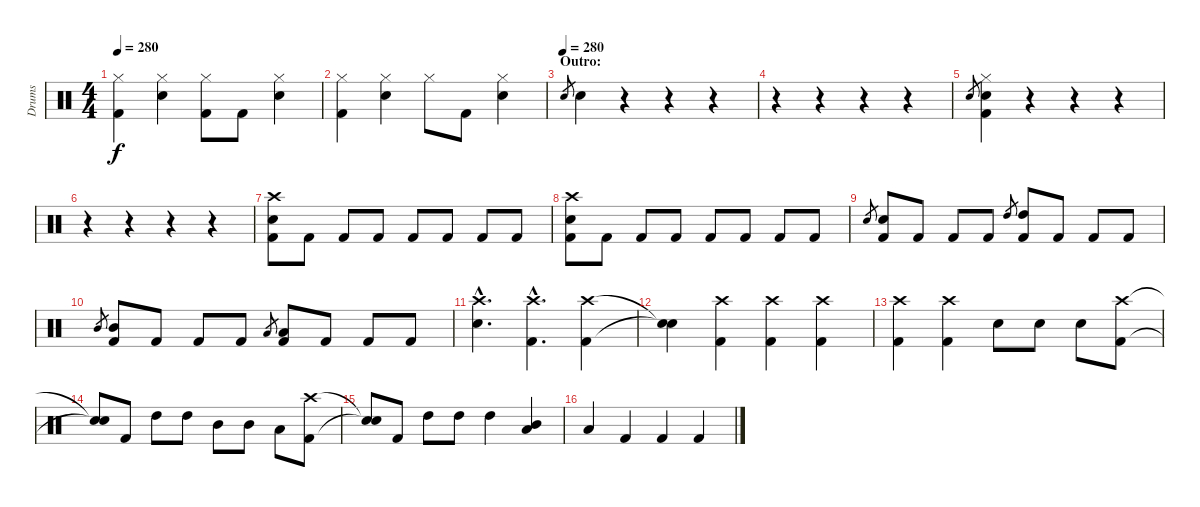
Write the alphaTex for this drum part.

\track ("Drums" "Drums") {instrument percussion}
\staff {score}
\articulation defaults
\ts (4 4)
\tempo 280
\clef neutral
\ks c
("Hi-Hat (closed)" "Kick (hit) 2").4{dy f} ("Hi-Hat (closed)" "Snare (hit) 2").4 ("Hi-Hat (closed)" "Kick (hit) 2").8 "Kick (hit) 2".8 ("Hi-Hat (closed)" "Snare (hit) 2").4 |
("Hi-Hat (closed)" "Kick (hit) 2").4 ("Hi-Hat (closed)" "Snare (hit) 2").4 "Hi-Hat (closed)".8 "Kick (hit) 2".8 ("Hi-Hat (closed)" "Snare (hit) 2").4 |
\section ("" "Outro:")
\tempo (280)
"Snare (hit) 2".8{gr} "Snare (hit) 2".4 r.4 r.4 r.4 |
r.4 r.4 r.4 r.4 |
"Snare (hit) 2".8{gr} ("Hi-Hat (closed)" "Snare (hit) 2" "Kick (hit) 2").4 r.4 r.4 r.4 |
r.4 r.4 r.4 r.4 |
("Crash high (hit)" "Snare (hit) 2" "Kick (hit) 2").8 "Kick (hit) 2".8 "Kick (hit) 2".8 "Kick (hit) 2".8 "Kick (hit) 2".8 "Kick (hit) 2".8 "Kick (hit) 2".8 "Kick (hit) 2".8 |
("Crash high (hit)" "Snare (hit) 2" "Kick (hit) 2").8 "Kick (hit) 2".8 "Kick (hit) 2".8 "Kick (hit) 2".8 "Kick (hit) 2".8 "Kick (hit) 2".8 "Kick (hit) 2".8 "Kick (hit) 2".8 |
"Snare (hit) 2".8{gr} ("Snare (hit) 2" "Kick (hit) 2").8 "Kick (hit) 2".8 "Kick (hit) 2".8 "Kick (hit) 2".8 "High Tom (hit)".8{gr} ("High Tom (hit)" "Kick (hit) 2").8 "Kick (hit) 2".8 "Kick (hit) 2".8 "Kick (hit) 2".8 |
"Mid Tom (hit)".8{gr} ("Mid Tom (hit)" "Kick (hit) 2").8 "Kick (hit) 2".8 "Kick (hit) 2".8 "Kick (hit) 2".8 "Low Tom (hit)".8{gr} ("Low Tom (hit)" "Kick (hit) 2").8 "Kick (hit) 2".8 "Kick (hit) 2".8 "Kick (hit) 2".8 |
("Crash high (hit)"{hac} "Snare (hit) 2"{hac}).4{d} ("Crash high (hit)"{hac} "Kick (hit) 2"{hac}).4{d} ("Crash high (hit)" "Kick (hit) 2").4 |
("Snare (hit)"{t} "Snare (hit)"{t}).4 ("Crash high (hit)" "Kick (hit) 2").4 ("Crash high (hit)" "Kick (hit) 2").4 ("Crash high (hit)" "Kick (hit) 2").4 |
("Crash high (hit)" "Kick (hit) 2").4 ("Crash high (hit)" "Kick (hit) 2").4 "Snare (hit) 2".8 "Snare (hit) 2".8 "Snare (hit) 2".8 ("Crash high (hit)" "Kick (hit) 2").8 |
("Snare (hit)"{t} "Snare (hit)"{t}).8 "Kick (hit) 2".8 "High Tom (hit)".8 "High Tom (hit)".8 "Mid Tom (hit)".8 "Mid Tom (hit)".8 "Low Tom (hit)".8 ("Crash high (hit)" "Kick (hit) 2").8 |
("Snare (hit)"{t} "Snare (hit)"{t}).8 "Kick (hit) 2".8 "High Tom (hit)".8 "High Tom (hit)".8 "High Tom (hit)".4 ("Mid Tom (hit)" "Low Tom (hit)").4 |
"Low Tom (hit)".4 "Kick (hit) 2".4 "Kick (hit) 2".4 "Kick (hit) 2".4
